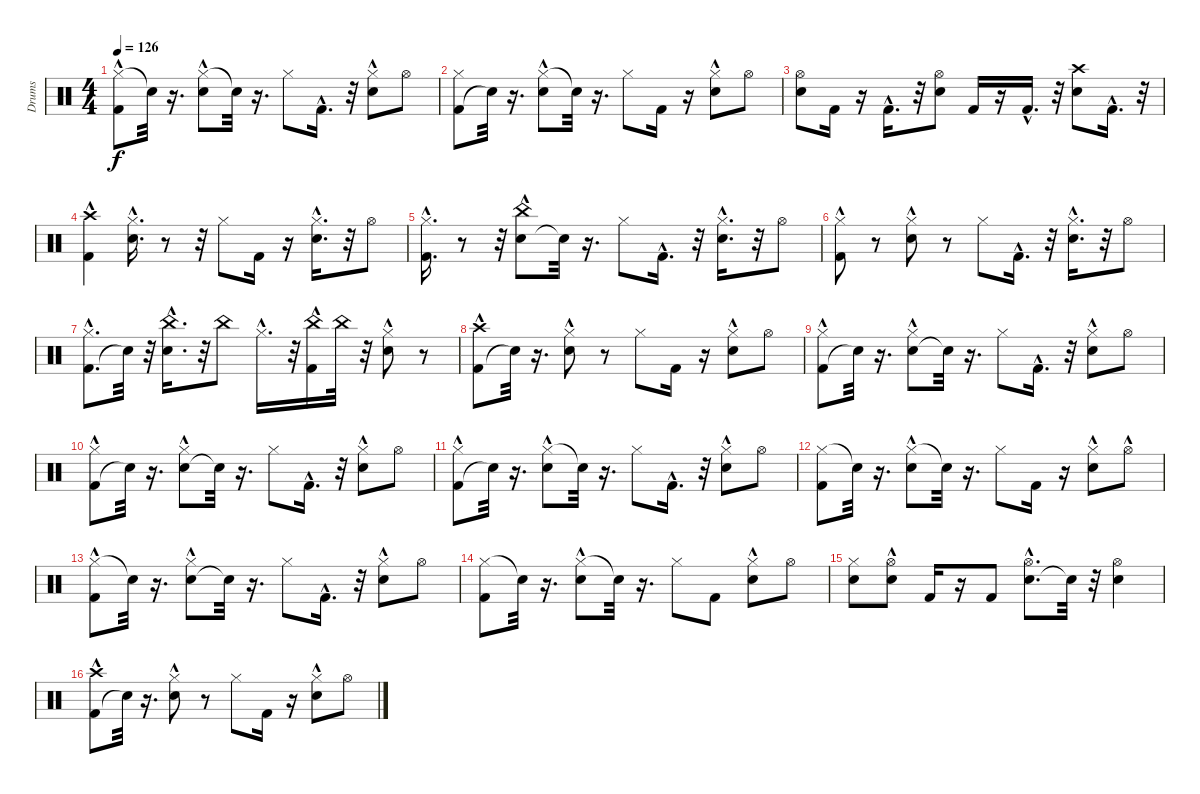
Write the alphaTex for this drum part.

\track ("Drums" "Drums") {instrument percussion}
\staff {score}
\articulation defaults
\ts (4 4)
\tempo 126
\clef neutral
\ks c
("Hi-Hat (closed)" "Kick (hit) 2"{hac}).8{dy f} "Snare (hit)"{t}.32 r.16{d} ("Hi-Hat (closed)" "Electric Snare (hit)"{hac}).8 "Snare (hit)"{t}.32 r.16{d} "Hi-Hat (closed)".8 "Kick (hit) 2"{hac}.16{d} r.32 ("Hi-Hat (closed)" "Electric Snare (hit)"{hac}).8 "Hi-Hat (open)".8 |
("Kick (hit) 2" "Hi-Hat (closed)").8 "Snare (hit)"{t}.32 r.16{d} ("Hi-Hat (closed)" "Electric Snare (hit)"{hac}).8 "Snare (hit)"{t}.32 r.16{d} "Hi-Hat (closed)".8 "Kick (hit) 2".16 r.16 ("Electric Snare (hit)"{hac} "Hi-Hat (closed)").8 "Hi-Hat (open)".8 |
("Hi-Hat (open)" "Electric Snare (hit)").8 "Kick (hit) 2".16 r.16 "Kick (hit) 2"{hac}.16{d} r.32 ("Electric Snare (hit)" "Hi-Hat (open)").8 "Kick (hit) 2".16 r.16 "Kick (hit) 2"{hac}.16{d} r.32 ("Crash high (hit)" "Electric Snare (hit)").8 "Kick (hit) 2"{hac}.16{d} r.32 |
("Kick (hit) 2"{hac} "Crash high (hit)").4 ("Electric Snare (hit)"{hac} "Hi-Hat (closed)"{hac}).16{d} r.8 r.32 "Hi-Hat (closed)".8 "Kick (hit) 2".16 r.16 ("Hi-Hat (closed)"{hac} "Electric Snare (hit)"{hac}).16{d} r.32 "Hi-Hat (open)".8 |
("Hi-Hat (closed)" "Kick (hit) 2"{hac}).16{d} r.8 r.32 ("Electric Snare (hit)"{hac} "China (hit)").8 "Snare (hit)"{t}.32 r.16{d} "Hi-Hat (closed)".8 "Kick (hit) 2"{hac}.16{d} r.32 ("Hi-Hat (closed)" "Electric Snare (hit)"{hac}).16{d} r.32 "Hi-Hat (open)".8 |
("Hi-Hat (closed)" "Kick (hit) 2"{hac}).8 r.8 ("Hi-Hat (closed)" "Electric Snare (hit)"{hac}).8 r.8 "Hi-Hat (closed)".8 "Kick (hit) 2"{hac}.16{d} r.32 ("Electric Snare (hit)"{hac} "Hi-Hat (closed)"{hac}).16{d} r.32 "Hi-Hat (open)".8 |
("Kick (hit) 2"{hac} "Hi-Hat (closed)"{hac}).8{d} "Snare (hit)"{t}.32 r.32 ("China (hit)" "Electric Snare (hit)"{hac}).16{d} r.32 "China (hit)".8 "Hi-Hat (closed)"{hac}.16{d} r.32 ("China (hit)" "Kick (hit) 2"{hac}).16 "China (hit)".32 r.32 ("Electric Snare (hit)"{hac} "Hi-Hat (closed)").8 r.8 |
("Kick (hit) 2"{hac} "Crash high (hit)").8 "Snare (hit)"{t}.32 r.16{d} ("Electric Snare (hit)"{hac} "Hi-Hat (closed)").8 r.8 "Hi-Hat (closed)".8 "Kick (hit) 2".16 r.16 ("Electric Snare (hit)"{hac} "Hi-Hat (closed)").8 "Hi-Hat (open)".8 |
("Kick (hit) 2"{hac} "Hi-Hat (closed)").8 "Snare (hit)"{t}.32 r.16{d} ("Electric Snare (hit)"{hac} "Hi-Hat (closed)").8 "Snare (hit)"{t}.32 r.16{d} "Hi-Hat (closed)".8 "Kick (hit) 2"{hac}.16{d} r.32 ("Electric Snare (hit)"{hac} "Hi-Hat (closed)").8 "Hi-Hat (open)".8 |
("Kick (hit) 2"{hac} "Hi-Hat (closed)").8 "Snare (hit)"{t}.32 r.16{d} ("Electric Snare (hit)"{hac} "Hi-Hat (closed)").8 "Snare (hit)"{t}.32 r.16{d} "Hi-Hat (closed)".8 "Kick (hit) 2"{hac}.16{d} r.32 ("Hi-Hat (closed)" "Electric Snare (hit)"{hac}).8 "Hi-Hat (open)".8 |
("Kick (hit) 2"{hac} "Hi-Hat (closed)").8 "Snare (hit)"{t}.32 r.16{d} ("Hi-Hat (closed)" "Electric Snare (hit)"{hac}).8 "Snare (hit)"{t}.32 r.16{d} "Hi-Hat (closed)".8 "Kick (hit) 2"{hac}.16{d} r.32 ("Hi-Hat (closed)" "Electric Snare (hit)"{hac}).8 "Hi-Hat (open)".8 |
("Hi-Hat (closed)" "Kick (hit) 2").8 "Snare (hit)"{t}.32 r.16{d} ("Hi-Hat (closed)" "Electric Snare (hit)"{hac}).8 "Snare (hit)"{t}.32 r.16{d} "Hi-Hat (closed)".8 "Kick (hit) 2".16 r.16 ("Hi-Hat (closed)" "Electric Snare (hit)"{hac}).8 "Hi-Hat (open)"{hac}.8 |
("Hi-Hat (closed)" "Kick (hit) 2"{hac}).8 "Snare (hit)"{t}.32 r.16{d} ("Electric Snare (hit)"{hac} "Hi-Hat (closed)").8 "Snare (hit)"{t}.32 r.16{d} "Hi-Hat (closed)".8 "Kick (hit) 2"{hac}.16{d} r.32 ("Electric Snare (hit)"{hac} "Hi-Hat (closed)").8 "Hi-Hat (open)".8 |
("Hi-Hat (closed)" "Kick (hit) 2").8 "Snare (hit)"{t}.32 r.16{d} ("Hi-Hat (closed)" "Electric Snare (hit)"{hac}).8 "Snare (hit)"{t}.32 r.16{d} "Hi-Hat (closed)".8 "Kick (hit) 2".8 ("Hi-Hat (closed)" "Electric Snare (hit)"{hac}).8 "Hi-Hat (open)".8 |
("Electric Snare (hit)" "Hi-Hat (closed)").8 ("Electric Snare (hit)"{hac} "Hi-Hat (open)").8 "Kick (hit) 2".16 r.16 "Kick (hit) 2".8 ("Electric Snare (hit)" "Hi-Hat (open)"{hac}).8{d} "Snare (hit)"{t}.32 r.32 ("Electric Snare (hit)" "Hi-Hat (open)").4 |
("Kick (hit) 2"{hac} "Crash high (hit)").8 "Snare (hit)"{t}.32 r.16{d} ("Hi-Hat (closed)" "Electric Snare (hit)"{hac}).8 r.8 "Hi-Hat (closed)".8 "Kick (hit) 2".16 r.16 ("Hi-Hat (closed)" "Electric Snare (hit)"{hac}).8 "Hi-Hat (open)".8
